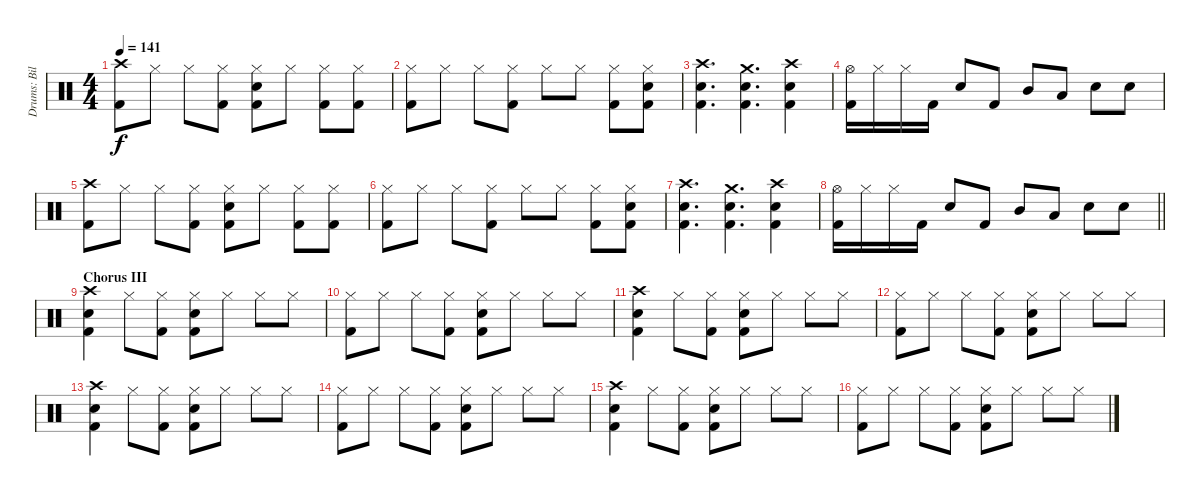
\track ("Drums: Bill" "Drums: Bil") {instrument percussion}
\staff {score}
\articulation defaults
\ts (4 4)
\tempo 141
\clef neutral
\ks c
("Crash high (hit)" "Kick (hit) 2").8{dy f} "Hi-Hat (closed)".8 "Hi-Hat (closed)".8 ("Hi-Hat (closed)" "Kick (hit) 2").8 ("Hi-Hat (closed)" "Snare (hit) 2" "Kick (hit) 2").8 "Hi-Hat (closed)".8 ("Hi-Hat (closed)" "Kick (hit) 2").8 ("Hi-Hat (closed)" "Kick (hit) 2").8 |
("Hi-Hat (closed)" "Kick (hit) 2").8 "Hi-Hat (closed)".8 "Hi-Hat (closed)".8 ("Hi-Hat (closed)" "Kick (hit) 2").8 "Hi-Hat (closed)".8 "Hi-Hat (closed)".8 ("Hi-Hat (closed)" "Kick (hit) 2").8 ("Hi-Hat (closed)" "Snare (hit) 2" "Kick (hit) 2").8 |
("Crash high (hit)" "Snare (hit) 2" "Kick (hit) 2").4{d} ("Crash medium (hit)" "Snare (hit) 2" "Kick (hit) 2").4{d} ("Crash high (hit)" "Snare (hit) 2" "Kick (hit) 2").4 |
("Hi-Hat (open)" "Kick (hit) 2").16 "Hi-Hat (closed)".16 "Hi-Hat (closed)".16 "Kick (hit) 2".16 "Snare (hit) 2".8 "Kick (hit) 2".8 "Mid Tom (hit)".8 "Low Tom (hit)".8 "Snare (hit) 2".8 "Snare (hit) 2".8 |
("Crash high (hit)" "Kick (hit) 2").8 "Hi-Hat (closed)".8 "Hi-Hat (closed)".8 ("Hi-Hat (closed)" "Kick (hit) 2").8 ("Hi-Hat (closed)" "Snare (hit) 2" "Kick (hit) 2").8 "Hi-Hat (closed)".8 ("Hi-Hat (closed)" "Kick (hit) 2").8 ("Hi-Hat (closed)" "Kick (hit) 2").8 |
("Hi-Hat (closed)" "Kick (hit) 2").8 "Hi-Hat (closed)".8 "Hi-Hat (closed)".8 ("Hi-Hat (closed)" "Kick (hit) 2").8 "Hi-Hat (closed)".8 "Hi-Hat (closed)".8 ("Hi-Hat (closed)" "Kick (hit) 2").8 ("Hi-Hat (closed)" "Snare (hit) 2" "Kick (hit) 2").8 |
("Crash high (hit)" "Snare (hit) 2" "Kick (hit) 2").4{d} ("Crash medium (hit)" "Snare (hit) 2" "Kick (hit) 2").4{d} ("Crash high (hit)" "Snare (hit) 2" "Kick (hit) 2").4 |
\barLineRight lightlight
("Hi-Hat (open)" "Kick (hit) 2").16 "Hi-Hat (closed)".16 "Hi-Hat (closed)".16 "Kick (hit) 2".16 "Snare (hit) 2".8 "Kick (hit) 2".8 "Mid Tom (hit)".8 "Low Tom (hit)".8 "Snare (hit) 2".8 "Snare (hit) 2".8 |
\section ("" "Chorus III")
("Crash high (hit)" "Snare (hit) 2" "Kick (hit) 2").4 "Hi-Hat (closed)".8 ("Hi-Hat (closed)" "Kick (hit) 2").8 ("Hi-Hat (closed)" "Snare (hit) 2" "Kick (hit) 2").8 "Hi-Hat (closed)".8 "Hi-Hat (closed)".8 "Hi-Hat (closed)".8 |
("Hi-Hat (closed)" "Kick (hit) 2").8 "Hi-Hat (closed)".8 "Hi-Hat (closed)".8 ("Hi-Hat (closed)" "Kick (hit) 2").8 ("Hi-Hat (closed)" "Snare (hit) 2" "Kick (hit) 2").8 "Hi-Hat (closed)".8 "Hi-Hat (closed)".8 "Hi-Hat (closed)".8 |
("Crash high (hit)" "Snare (hit) 2" "Kick (hit) 2").4 "Hi-Hat (closed)".8 ("Hi-Hat (closed)" "Kick (hit) 2").8 ("Hi-Hat (closed)" "Snare (hit) 2" "Kick (hit) 2").8 "Hi-Hat (closed)".8 "Hi-Hat (closed)".8 "Hi-Hat (closed)".8 |
("Hi-Hat (closed)" "Kick (hit) 2").8 "Hi-Hat (closed)".8 "Hi-Hat (closed)".8 ("Hi-Hat (closed)" "Kick (hit) 2").8 ("Hi-Hat (closed)" "Snare (hit) 2" "Kick (hit) 2").8 "Hi-Hat (closed)".8 "Hi-Hat (closed)".8 "Hi-Hat (closed)".8 |
("Crash high (hit)" "Snare (hit) 2" "Kick (hit) 2").4 "Hi-Hat (closed)".8 ("Hi-Hat (closed)" "Kick (hit) 2").8 ("Hi-Hat (closed)" "Snare (hit) 2" "Kick (hit) 2").8 "Hi-Hat (closed)".8 "Hi-Hat (closed)".8 "Hi-Hat (closed)".8 |
("Hi-Hat (closed)" "Kick (hit) 2").8 "Hi-Hat (closed)".8 "Hi-Hat (closed)".8 ("Hi-Hat (closed)" "Kick (hit) 2").8 ("Hi-Hat (closed)" "Snare (hit) 2" "Kick (hit) 2").8 "Hi-Hat (closed)".8 "Hi-Hat (closed)".8 "Hi-Hat (closed)".8 |
("Crash high (hit)" "Snare (hit) 2" "Kick (hit) 2").4 "Hi-Hat (closed)".8 ("Hi-Hat (closed)" "Kick (hit) 2").8 ("Hi-Hat (closed)" "Snare (hit) 2" "Kick (hit) 2").8 "Hi-Hat (closed)".8 "Hi-Hat (closed)".8 "Hi-Hat (closed)".8 |
("Hi-Hat (closed)" "Kick (hit) 2").8 "Hi-Hat (closed)".8 "Hi-Hat (closed)".8 ("Hi-Hat (closed)" "Kick (hit) 2").8 ("Hi-Hat (closed)" "Snare (hit) 2" "Kick (hit) 2").8 "Hi-Hat (closed)".8 "Hi-Hat (closed)".8 "Hi-Hat (closed)".8
